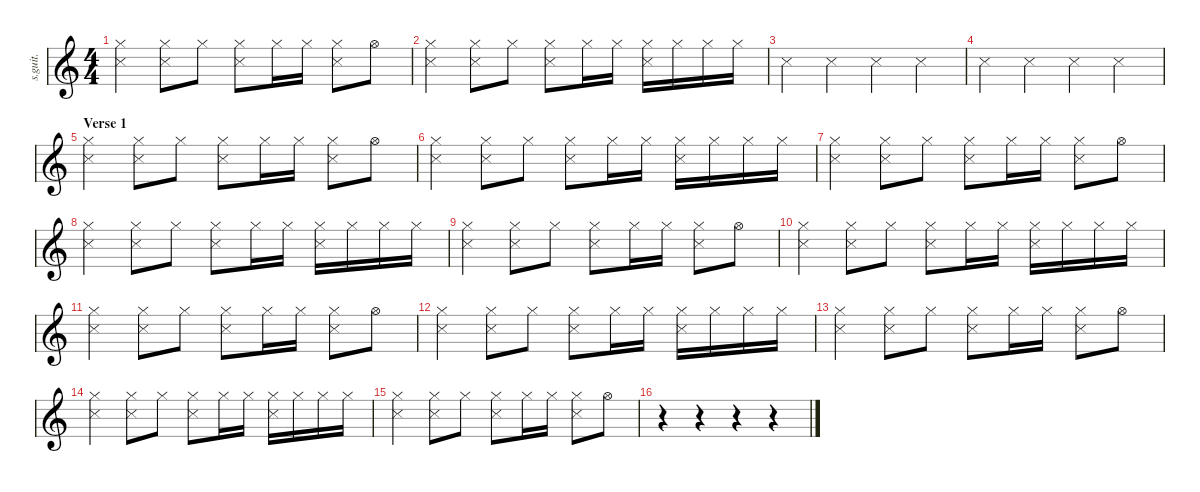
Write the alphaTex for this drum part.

\defaultSystemsLayout 4
\hideDynamics
\bracketExtendMode nobrackets
\track ("Percussion" "s.guit.") {instrument percussion}
\staff {score}
\articulation defaults
\ts (4 4)
\tempo (102 hide)
\clef g2
\ks c
("Snare (side stick) 3" "Hi-Hat (closed)").4{dy f} ("Snare (side stick) 3" "Hi-Hat (closed)").8 "Hi-Hat (closed)".8 ("Snare (side stick) 3" "Hi-Hat (closed)").8 "Hi-Hat (closed)".16 "Hi-Hat (closed)".16 ("Snare (side stick) 3" "Hi-Hat (closed)").8 "Hi-Hat (open)".8 |
("Snare (side stick) 3" "Hi-Hat (closed)").4 ("Snare (side stick) 3" "Hi-Hat (closed)").8 "Hi-Hat (closed)".8 ("Snare (side stick) 3" "Hi-Hat (closed)").8 "Hi-Hat (closed)".16 "Hi-Hat (closed)".16 ("Snare (side stick) 3" "Hi-Hat (closed)").16 "Hi-Hat (closed)".16 "Hi-Hat (closed)".16 "Hi-Hat (closed)".16 |
"Snare (side stick) 3".4 "Snare (side stick) 3".4 "Snare (side stick) 3".4 "Snare (side stick) 3".4 |
"Snare (side stick) 3".4 "Snare (side stick) 3".4 "Snare (side stick) 3".4 "Snare (side stick) 3".4 |
\section ("" "Verse 1")
("Snare (side stick) 3" "Hi-Hat (closed)").4 ("Snare (side stick) 3" "Hi-Hat (closed)").8 "Hi-Hat (closed)".8 ("Snare (side stick) 3" "Hi-Hat (closed)").8 "Hi-Hat (closed)".16 "Hi-Hat (closed)".16 ("Snare (side stick) 3" "Hi-Hat (closed)").8 "Hi-Hat (open)".8 |
("Snare (side stick) 3" "Hi-Hat (closed)").4 ("Snare (side stick) 3" "Hi-Hat (closed)").8 "Hi-Hat (closed)".8 ("Snare (side stick) 3" "Hi-Hat (closed)").8 "Hi-Hat (closed)".16 "Hi-Hat (closed)".16 ("Snare (side stick) 3" "Hi-Hat (closed)").16 "Hi-Hat (closed)".16 "Hi-Hat (closed)".16 "Hi-Hat (closed)".16 |
("Snare (side stick) 3" "Hi-Hat (closed)").4 ("Snare (side stick) 3" "Hi-Hat (closed)").8 "Hi-Hat (closed)".8 ("Snare (side stick) 3" "Hi-Hat (closed)").8 "Hi-Hat (closed)".16 "Hi-Hat (closed)".16 ("Snare (side stick) 3" "Hi-Hat (closed)").8 "Hi-Hat (open)".8 |
("Snare (side stick) 3" "Hi-Hat (closed)").4 ("Snare (side stick) 3" "Hi-Hat (closed)").8 "Hi-Hat (closed)".8 ("Snare (side stick) 3" "Hi-Hat (closed)").8 "Hi-Hat (closed)".16 "Hi-Hat (closed)".16 ("Snare (side stick) 3" "Hi-Hat (closed)").16 "Hi-Hat (closed)".16 "Hi-Hat (closed)".16 "Hi-Hat (closed)".16 |
("Snare (side stick) 3" "Hi-Hat (closed)").4 ("Snare (side stick) 3" "Hi-Hat (closed)").8 "Hi-Hat (closed)".8 ("Snare (side stick) 3" "Hi-Hat (closed)").8 "Hi-Hat (closed)".16 "Hi-Hat (closed)".16 ("Snare (side stick) 3" "Hi-Hat (closed)").8 "Hi-Hat (open)".8 |
("Snare (side stick) 3" "Hi-Hat (closed)").4 ("Snare (side stick) 3" "Hi-Hat (closed)").8 "Hi-Hat (closed)".8 ("Snare (side stick) 3" "Hi-Hat (closed)").8 "Hi-Hat (closed)".16 "Hi-Hat (closed)".16 ("Snare (side stick) 3" "Hi-Hat (closed)").16 "Hi-Hat (closed)".16 "Hi-Hat (closed)".16 "Hi-Hat (closed)".16 |
("Snare (side stick) 3" "Hi-Hat (closed)").4 ("Snare (side stick) 3" "Hi-Hat (closed)").8 "Hi-Hat (closed)".8 ("Snare (side stick) 3" "Hi-Hat (closed)").8 "Hi-Hat (closed)".16 "Hi-Hat (closed)".16 ("Snare (side stick) 3" "Hi-Hat (closed)").8 "Hi-Hat (open)".8 |
("Snare (side stick) 3" "Hi-Hat (closed)").4 ("Snare (side stick) 3" "Hi-Hat (closed)").8 "Hi-Hat (closed)".8 ("Snare (side stick) 3" "Hi-Hat (closed)").8 "Hi-Hat (closed)".16 "Hi-Hat (closed)".16 ("Snare (side stick) 3" "Hi-Hat (closed)").16 "Hi-Hat (closed)".16 "Hi-Hat (closed)".16 "Hi-Hat (closed)".16 |
("Snare (side stick) 3" "Hi-Hat (closed)").4 ("Snare (side stick) 3" "Hi-Hat (closed)").8 "Hi-Hat (closed)".8 ("Snare (side stick) 3" "Hi-Hat (closed)").8 "Hi-Hat (closed)".16 "Hi-Hat (closed)".16 ("Snare (side stick) 3" "Hi-Hat (closed)").8 "Hi-Hat (open)".8 |
("Snare (side stick) 3" "Hi-Hat (closed)").4 ("Snare (side stick) 3" "Hi-Hat (closed)").8 "Hi-Hat (closed)".8 ("Snare (side stick) 3" "Hi-Hat (closed)").8 "Hi-Hat (closed)".16 "Hi-Hat (closed)".16 ("Snare (side stick) 3" "Hi-Hat (closed)").16 "Hi-Hat (closed)".16 "Hi-Hat (closed)".16 "Hi-Hat (closed)".16 |
("Snare (side stick) 3" "Hi-Hat (closed)").4 ("Snare (side stick) 3" "Hi-Hat (closed)").8 "Hi-Hat (closed)".8 ("Snare (side stick) 3" "Hi-Hat (closed)").8 "Hi-Hat (closed)".16 "Hi-Hat (closed)".16 ("Snare (side stick) 3" "Hi-Hat (closed)").8 "Hi-Hat (open)".8 |
r.4 r.4 r.4 r.4
